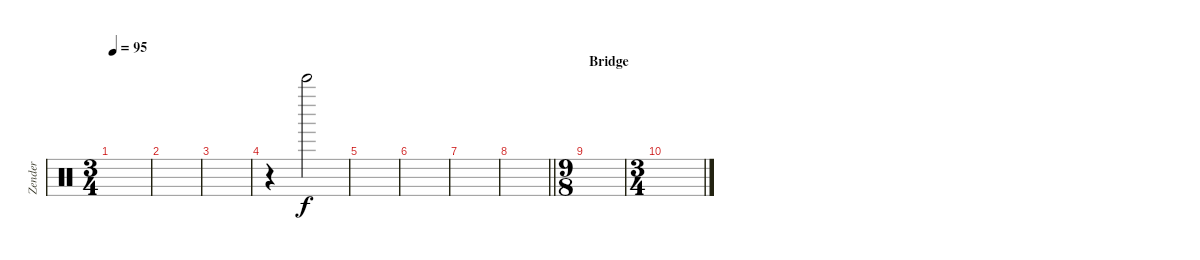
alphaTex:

\track ("Zender" "Zender") {instrument percussion}
\staff {score}
\articulation defaults
\ts (3 4)
\tempo 95
\clef neutral
\ks c
|
|
|
r.4 "Bell Tree (hit)".2 |
|
|
|
\barLineRight lightlight
|
\ts (9 8)
\section ("" "Bridge")
|
\ts (3 4)
